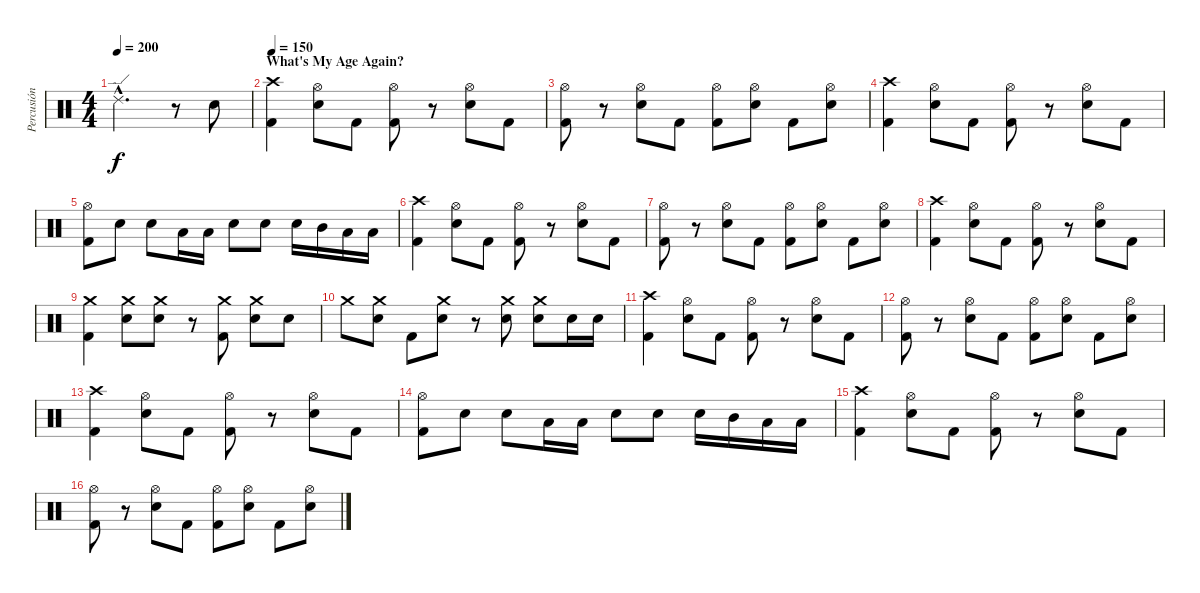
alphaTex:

\track ("Percusión" "Percusión") {instrument percussion}
\staff {score}
\articulation defaults
\ts (4 4)
\tempo 200
\clef neutral
\ks c "Ride (edge) 2"{hac t}.2{d dy f}
r.8 "Electric Snare (hit)".8 |
\section ("" "What's My Age Again?")
\tempo 150
("Crash high (hit)" "Kick (hit) 2").4 ("Hi-Hat (open)" "Electric Snare (hit)").8 "Kick (hit) 2".8 ("Hi-Hat (open)" "Kick (hit) 2").8 r.8 ("Hi-Hat (open)" "Electric Snare (hit)").8 "Kick (hit) 2".8 |
("Hi-Hat (open)" "Kick (hit) 2").8 r.8 ("Hi-Hat (open)" "Electric Snare (hit)").8 "Kick (hit) 2".8 ("Hi-Hat (open)" "Kick (hit) 2").8 ("Hi-Hat (open)" "Electric Snare (hit)").8 "Kick (hit) 2".8 ("Hi-Hat (open)" "Electric Snare (hit)").8 |
("Crash high (hit)" "Kick (hit) 2").4 ("Hi-Hat (open)" "Electric Snare (hit)").8 "Kick (hit) 2".8 ("Hi-Hat (open)" "Kick (hit) 2").8 r.8 ("Hi-Hat (open)" "Electric Snare (hit)").8 "Kick (hit) 2".8 |
("Hi-Hat (open)" "Kick (hit) 2").8 "Electric Snare (hit)".8 "Electric Snare (hit)".8 "Low Tom (hit)".16 "Low Tom (hit)".16 "Electric Snare (hit)".8 "Electric Snare (hit)".8 "Electric Snare (hit)".16 "Mid Tom (hit)".16 "Low Tom (hit)".16 "Low Tom (hit)".16 |
("Crash high (hit)" "Kick (hit) 2").4 ("Hi-Hat (open)" "Electric Snare (hit)").8 "Kick (hit) 2".8 ("Hi-Hat (open)" "Kick (hit) 2").8 r.8 ("Hi-Hat (open)" "Electric Snare (hit)").8 "Kick (hit) 2".8 |
("Hi-Hat (open)" "Kick (hit) 2").8 r.8 ("Hi-Hat (open)" "Electric Snare (hit)").8 "Kick (hit) 2".8 ("Hi-Hat (open)" "Kick (hit) 2").8 ("Hi-Hat (open)" "Electric Snare (hit)").8 "Kick (hit) 2".8 ("Hi-Hat (open)" "Electric Snare (hit)").8 |
("Crash high (hit)" "Kick (hit) 2").4 ("Hi-Hat (open)" "Electric Snare (hit)").8 "Kick (hit) 2".8 ("Hi-Hat (open)" "Kick (hit) 2").8 r.8 ("Hi-Hat (open)" "Electric Snare (hit)").8 "Kick (hit) 2".8 |
("Crash medium (hit)" "Kick (hit) 2").4 ("Crash medium (hit)" "Electric Snare (hit)").8 ("Crash medium (hit)" "Electric Snare (hit)").8 r.8 ("Crash medium (hit)" "Kick (hit) 2").8 ("Crash medium (hit)" "Electric Snare (hit)").8 "Electric Snare (hit)".8 |
"Crash medium (hit)".8 ("Crash medium (hit)" "Electric Snare (hit)").8 "Kick (hit) 2".8 ("Crash medium (hit)" "Electric Snare (hit)").8 r.8 ("Crash medium (hit)" "Electric Snare (hit)").8 ("Crash medium (hit)" "Electric Snare (hit)").8 "Electric Snare (hit)".16 "Electric Snare (hit)".16 |
("Crash high (hit)" "Kick (hit) 2").4 ("Hi-Hat (open)" "Electric Snare (hit)").8 "Kick (hit) 2".8 ("Hi-Hat (open)" "Kick (hit) 2").8 r.8 ("Hi-Hat (open)" "Electric Snare (hit)").8 "Kick (hit) 2".8 |
("Hi-Hat (open)" "Kick (hit) 2").8 r.8 ("Hi-Hat (open)" "Electric Snare (hit)").8 "Kick (hit) 2".8 ("Hi-Hat (open)" "Kick (hit) 2").8 ("Hi-Hat (open)" "Electric Snare (hit)").8 "Kick (hit) 2".8 ("Hi-Hat (open)" "Electric Snare (hit)").8 |
("Crash high (hit)" "Kick (hit) 2").4 ("Hi-Hat (open)" "Electric Snare (hit)").8 "Kick (hit) 2".8 ("Hi-Hat (open)" "Kick (hit) 2").8 r.8 ("Hi-Hat (open)" "Electric Snare (hit)").8 "Kick (hit) 2".8 |
("Hi-Hat (open)" "Kick (hit) 2").8 "Electric Snare (hit)".8 "Electric Snare (hit)".8 "Low Tom (hit)".16 "Low Tom (hit)".16 "Electric Snare (hit)".8 "Electric Snare (hit)".8 "Electric Snare (hit)".16 "Mid Tom (hit)".16 "Low Tom (hit)".16 "Low Tom (hit)".16 |
("Crash high (hit)" "Kick (hit) 2").4 ("Hi-Hat (open)" "Electric Snare (hit)").8 "Kick (hit) 2".8 ("Hi-Hat (open)" "Kick (hit) 2").8 r.8 ("Hi-Hat (open)" "Electric Snare (hit)").8 "Kick (hit) 2".8 |
("Hi-Hat (open)" "Kick (hit) 2").8 r.8 ("Hi-Hat (open)" "Electric Snare (hit)").8 "Kick (hit) 2".8 ("Hi-Hat (open)" "Kick (hit) 2").8 ("Hi-Hat (open)" "Electric Snare (hit)").8 "Kick (hit) 2".8 ("Hi-Hat (open)" "Electric Snare (hit)").8
